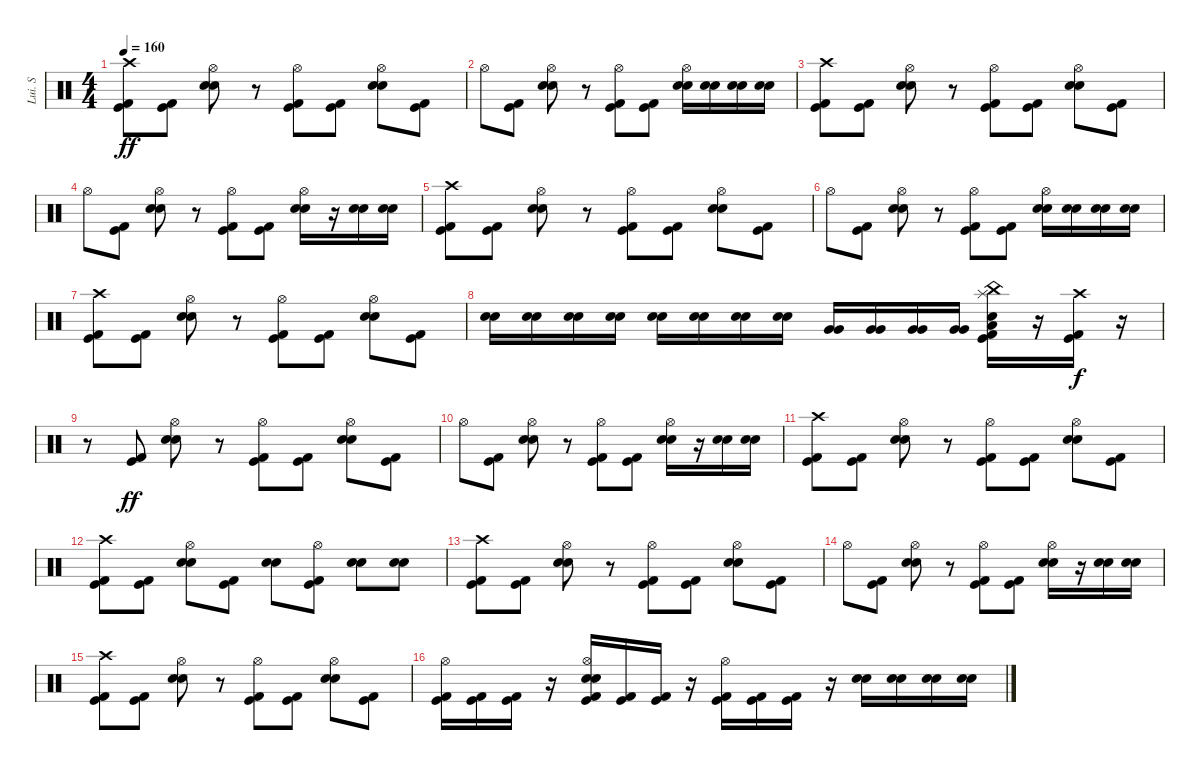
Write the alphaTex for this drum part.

\track ("Lui. S" "Lui. S") {instrument percussion}
\staff {score}
\articulation defaults
\ts (4 4)
\tempo 160
\clef neutral
\ks c
("Crash high (hit)" "Kick (hit)" "Kick (hit) 2").8{dy ff volume 13} ("Kick (hit)" "Kick (hit) 2").8 ("Hi-Hat (open)" "Snare (hit) 2" "Electric Snare (hit)").8 r.8 ("Hi-Hat (open)" "Kick (hit)" "Kick (hit) 2").8 ("Kick (hit)" "Kick (hit) 2").8 ("Hi-Hat (open)" "Snare (hit) 2" "Electric Snare (hit)").8 ("Kick (hit)" "Kick (hit) 2").8 |
"Hi-Hat (open)".8 ("Kick (hit)" "Kick (hit) 2").8 ("Hi-Hat (open)" "Snare (hit) 2" "Electric Snare (hit)").8 r.8 ("Hi-Hat (open)" "Kick (hit)" "Kick (hit) 2").8 ("Kick (hit)" "Kick (hit) 2").8 ("Hi-Hat (open)" "Electric Snare (hit)" "Snare (hit) 2").16 ("Electric Snare (hit)" "Snare (hit) 2").16 ("Electric Snare (hit)" "Snare (hit) 2").16 ("Electric Snare (hit)" "Snare (hit) 2").16 |
("Crash high (hit)" "Kick (hit)" "Kick (hit) 2").8 ("Kick (hit)" "Kick (hit) 2").8 ("Hi-Hat (open)" "Snare (hit) 2" "Electric Snare (hit)").8 r.8 ("Hi-Hat (open)" "Kick (hit)" "Kick (hit) 2").8 ("Kick (hit)" "Kick (hit) 2").8 ("Hi-Hat (open)" "Snare (hit) 2" "Electric Snare (hit)").8 ("Kick (hit)" "Kick (hit) 2").8 |
"Hi-Hat (open)".8 ("Kick (hit)" "Kick (hit) 2").8 ("Hi-Hat (open)" "Snare (hit) 2" "Electric Snare (hit)").8 r.8 ("Hi-Hat (open)" "Kick (hit)" "Kick (hit) 2").8 ("Kick (hit)" "Kick (hit) 2").8 ("Hi-Hat (open)" "Snare (hit) 2" "Electric Snare (hit)").16 r.16 ("Snare (hit) 2" "Electric Snare (hit)").16 ("Snare (hit) 2" "Electric Snare (hit)").16 |
("Crash high (hit)" "Kick (hit)" "Kick (hit) 2").8 ("Kick (hit)" "Kick (hit) 2").8 ("Hi-Hat (open)" "Snare (hit) 2" "Electric Snare (hit)").8 r.8 ("Hi-Hat (open)" "Kick (hit)" "Kick (hit) 2").8 ("Kick (hit)" "Kick (hit) 2").8 ("Hi-Hat (open)" "Snare (hit) 2" "Electric Snare (hit)").8 ("Kick (hit)" "Kick (hit) 2").8 |
"Hi-Hat (open)".8 ("Kick (hit)" "Kick (hit) 2").8 ("Hi-Hat (open)" "Snare (hit) 2" "Electric Snare (hit)").8 r.8 ("Hi-Hat (open)" "Kick (hit)" "Kick (hit) 2").8 ("Kick (hit)" "Kick (hit) 2").8 ("Hi-Hat (open)" "Snare (hit) 2" "Electric Snare (hit)").16 ("Snare (hit) 2" "Electric Snare (hit)").16 ("Snare (hit) 2" "Electric Snare (hit)").16 ("Snare (hit) 2" "Electric Snare (hit)").16 |
("Crash high (hit)" "Kick (hit)" "Kick (hit) 2").8 ("Kick (hit)" "Kick (hit) 2").8 ("Hi-Hat (open)" "Snare (hit) 2" "Electric Snare (hit)").8 r.8 ("Hi-Hat (open)" "Kick (hit)" "Kick (hit) 2").8 ("Kick (hit)" "Kick (hit) 2").8 ("Hi-Hat (open)" "Snare (hit) 2" "Electric Snare (hit)").8 ("Kick (hit)" "Kick (hit) 2").8 |
("Snare (hit) 2" "Electric Snare (hit)").16 ("Snare (hit) 2" "Electric Snare (hit)").16 ("Snare (hit) 2" "Electric Snare (hit)").16 ("Snare (hit) 2" "Electric Snare (hit)").16 ("Snare (hit) 2" "Electric Snare (hit)").16 ("Snare (hit) 2" "Electric Snare (hit)").16 ("Snare (hit) 2" "Electric Snare (hit)").16 ("Snare (hit) 2" "Electric Snare (hit)").16 ("Very Low Tom (hit)" "Very Low Tom (hit)").16 ("Very Low Tom (hit)" "Very Low Tom (hit)").16 ("Very Low Tom (hit)" "Very Low Tom (hit)").16 ("Very Low Tom (hit)" "Very Low Tom (hit)").16 ("China (hit)" "Splash (hit)" "Electric Snare (hit)" "Low Floor Tom (hit)" "Kick (hit)" "Kick (hit) 2").16 r.16 ("Crash high (hit)" "Kick (hit)" "Kick (hit) 2").16{dy f} r.16 |
r.8 ("Kick (hit)" "Kick (hit) 2").8{dy ff} ("Hi-Hat (open)" "Snare (hit) 2" "Electric Snare (hit)").8 r.8 ("Hi-Hat (open)" "Kick (hit)" "Kick (hit) 2").8 ("Kick (hit)" "Kick (hit) 2").8 ("Hi-Hat (open)" "Snare (hit) 2" "Electric Snare (hit)").8 ("Kick (hit)" "Kick (hit) 2").8 |
"Hi-Hat (open)".8 ("Kick (hit)" "Kick (hit) 2").8 ("Hi-Hat (open)" "Snare (hit) 2" "Electric Snare (hit)").8 r.8 ("Hi-Hat (open)" "Kick (hit)" "Kick (hit) 2").8 ("Kick (hit)" "Kick (hit) 2").8 ("Hi-Hat (open)" "Snare (hit) 2" "Electric Snare (hit)").16 r.16 ("Snare (hit) 2" "Electric Snare (hit)").16 ("Snare (hit) 2" "Electric Snare (hit)").16 |
("Crash high (hit)" "Kick (hit)" "Kick (hit) 2").8 ("Kick (hit)" "Kick (hit) 2").8 ("Hi-Hat (open)" "Snare (hit) 2" "Electric Snare (hit)").8 r.8 ("Hi-Hat (open)" "Kick (hit)" "Kick (hit) 2").8 ("Kick (hit)" "Kick (hit) 2").8 ("Hi-Hat (open)" "Snare (hit) 2" "Electric Snare (hit)").8 ("Kick (hit)" "Kick (hit) 2").8 |
("Crash high (hit)" "Kick (hit)" "Kick (hit) 2").8 ("Kick (hit)" "Kick (hit) 2").8 ("Hi-Hat (open)" "Snare (hit) 2" "Electric Snare (hit)").8 ("Kick (hit) 2" "Kick (hit)").8 ("Snare (hit) 2" "Electric Snare (hit)").8 ("Hi-Hat (open)" "Kick (hit)" "Kick (hit) 2").8 ("Snare (hit) 2" "Electric Snare (hit)").8 ("Snare (hit) 2" "Electric Snare (hit)").8 |
("Crash high (hit)" "Kick (hit)" "Kick (hit) 2").8 ("Kick (hit)" "Kick (hit) 2").8 ("Hi-Hat (open)" "Snare (hit) 2" "Electric Snare (hit)").8 r.8 ("Hi-Hat (open)" "Kick (hit)" "Kick (hit) 2").8 ("Kick (hit)" "Kick (hit) 2").8 ("Hi-Hat (open)" "Snare (hit) 2" "Electric Snare (hit)").8 ("Kick (hit)" "Kick (hit) 2").8 |
"Hi-Hat (open)".8 ("Kick (hit)" "Kick (hit) 2").8 ("Hi-Hat (open)" "Snare (hit) 2" "Electric Snare (hit)").8 r.8 ("Hi-Hat (open)" "Kick (hit)" "Kick (hit) 2").8 ("Kick (hit)" "Kick (hit) 2").8 ("Hi-Hat (open)" "Snare (hit) 2" "Electric Snare (hit)").16 r.16 ("Snare (hit) 2" "Electric Snare (hit)").16 ("Snare (hit) 2" "Electric Snare (hit)").16 |
("Crash high (hit)" "Kick (hit)" "Kick (hit) 2").8 ("Kick (hit)" "Kick (hit) 2").8 ("Hi-Hat (open)" "Snare (hit) 2" "Electric Snare (hit)").8 r.8 ("Hi-Hat (open)" "Kick (hit)" "Kick (hit) 2").8 ("Kick (hit)" "Kick (hit) 2").8 ("Hi-Hat (open)" "Snare (hit) 2" "Electric Snare (hit)").8 ("Kick (hit)" "Kick (hit) 2").8 |
("Hi-Hat (open)" "Kick (hit)" "Kick (hit) 2").16 ("Kick (hit)" "Kick (hit) 2").16 ("Kick (hit)" "Kick (hit) 2").16 r.16 ("Hi-Hat (open)" "Electric Snare (hit)" "Snare (hit) 2" "Kick (hit)" "Kick (hit) 2").16 ("Kick (hit)" "Kick (hit) 2").16 ("Kick (hit)" "Kick (hit) 2").16 r.16 ("Hi-Hat (open)" "Kick (hit)" "Kick (hit) 2").16 ("Kick (hit)" "Kick (hit) 2").16 ("Kick (hit)" "Kick (hit) 2").16 r.16 ("Electric Snare (hit)" "Snare (hit) 2").16 ("Electric Snare (hit)" "Snare (hit) 2").16 ("Electric Snare (hit)" "Snare (hit) 2").16 ("Electric Snare (hit)" "Snare (hit) 2").16
